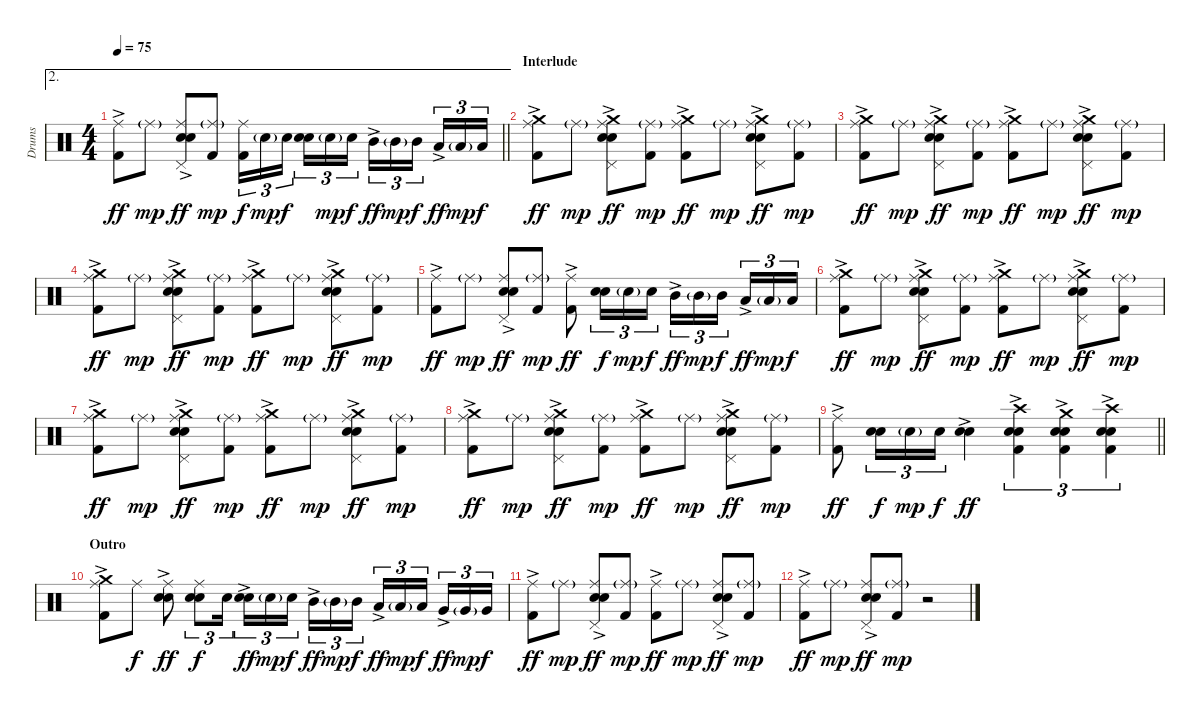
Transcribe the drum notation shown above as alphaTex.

\track ("Drums" "Drums") {instrument percussion}
\staff {score}
\articulation defaults
\ae 2
\ts (4 4)
\tempo 75
\clef neutral
\barLineRight lightlight
\ks c
("Ride (middle)" "Kick (hit) 2"{ac}).8{dy ff} "Ride (middle)"{g}.8{dy mp} ("Ride (middle)" "Electric Snare (hit)"{ac} "Snare (hit) 2" "Pedal Hi-Hat (hit)").8{dy ff} ("Ride (middle)"{g} "Kick (hit) 2").8{dy mp} ("Ride (middle)" "Kick (hit) 2").16{tu (3 2) dy f} "Snare (hit) 2"{g}.16{tu (3 2) dy mp} "Snare (hit) 2".16{tu (3 2) dy f beam splitsecondary} ("Electric Snare (hit)" "Snare (hit) 2").16{tu (3 2)} "Snare (hit) 2"{g}.16{tu (3 2) dy mp} "Snare (hit) 2".16{tu (3 2) dy f} "Mid Tom (hit)"{ac}.16{tu (3 2) dy ff} "Mid Tom (hit)"{g}.16{tu (3 2) dy mp} "Mid Tom (hit)".16{tu (3 2) dy f beam splitsecondary} "Low Tom (hit)"{ac}.16{tu (3 2) dy ff} "Low Tom (hit)"{g}.16{tu (3 2) dy mp} "Low Tom (hit)".16{tu (3 2) dy f} |
\section ("" "Interlude")
("Ride (middle)" "Crash medium (hit)" "Kick (hit) 2"{ac}).8{dy ff} "Ride (middle)"{g}.8{dy mp} ("Ride (middle)" "Crash medium (hit)" "Electric Snare (hit)"{ac} "Snare (hit) 2" "Pedal Hi-Hat (hit)").8{dy ff} ("Ride (middle)"{g} "Kick (hit) 2").8{dy mp} ("Ride (middle)" "Crash medium (hit)" "Kick (hit) 2"{ac}).8{dy ff} "Ride (middle)"{g}.8{dy mp} ("Ride (middle)" "Crash medium (hit)" "Electric Snare (hit)"{ac} "Snare (hit) 2" "Pedal Hi-Hat (hit)").8{dy ff} ("Ride (middle)"{g} "Kick (hit) 2").8{dy mp} |
("Ride (middle)" "Crash medium (hit)" "Kick (hit) 2"{ac}).8{dy ff} "Ride (middle)"{g}.8{dy mp} ("Ride (middle)" "Crash medium (hit)" "Electric Snare (hit)"{ac} "Snare (hit) 2" "Pedal Hi-Hat (hit)").8{dy ff} ("Ride (middle)"{g} "Kick (hit) 2").8{dy mp} ("Ride (middle)" "Crash medium (hit)" "Kick (hit) 2"{ac}).8{dy ff} "Ride (middle)"{g}.8{dy mp} ("Ride (middle)" "Crash medium (hit)" "Electric Snare (hit)"{ac} "Snare (hit) 2" "Pedal Hi-Hat (hit)").8{dy ff} ("Ride (middle)"{g} "Kick (hit) 2").8{dy mp} |
("Ride (middle)" "Crash medium (hit)" "Kick (hit) 2"{ac}).8{dy ff} "Ride (middle)"{g}.8{dy mp} ("Ride (middle)" "Crash medium (hit)" "Electric Snare (hit)"{ac} "Snare (hit) 2" "Pedal Hi-Hat (hit)").8{dy ff} ("Ride (middle)"{g} "Kick (hit) 2").8{dy mp} ("Ride (middle)" "Crash medium (hit)" "Kick (hit) 2"{ac}).8{dy ff} "Ride (middle)"{g}.8{dy mp} ("Ride (middle)" "Crash medium (hit)" "Electric Snare (hit)"{ac} "Snare (hit) 2" "Pedal Hi-Hat (hit)").8{dy ff} ("Ride (middle)"{g} "Kick (hit) 2").8{dy mp} |
("Ride (middle)" "Kick (hit) 2"{ac}).8{dy ff} "Ride (middle)"{g}.8{dy mp} ("Ride (middle)" "Electric Snare (hit)"{ac} "Snare (hit) 2" "Pedal Hi-Hat (hit)").8{dy ff} ("Ride (middle)"{g} "Kick (hit) 2").8{dy mp} ("Ride (middle)" "Kick (hit) 2"{ac}).8{dy ff} ("Electric Snare (hit)" "Snare (hit) 2").16{tu (3 2) dy f} "Snare (hit) 2"{g}.16{tu (3 2) dy mp} "Snare (hit) 2".16{tu (3 2) dy f} "Mid Tom (hit)"{ac}.16{tu (3 2) dy ff} "Mid Tom (hit)"{g}.16{tu (3 2) dy mp} "Mid Tom (hit)".16{tu (3 2) dy f beam splitsecondary} "Low Tom (hit)"{ac}.16{tu (3 2) dy ff} "Low Tom (hit)"{g}.16{tu (3 2) dy mp} "Low Tom (hit)".16{tu (3 2) dy f} |
("Ride (middle)" "Crash medium (hit)" "Kick (hit) 2"{ac}).8{dy ff} "Ride (middle)"{g}.8{dy mp} ("Ride (middle)" "Crash medium (hit)" "Electric Snare (hit)"{ac} "Snare (hit) 2" "Pedal Hi-Hat (hit)").8{dy ff} ("Ride (middle)"{g} "Kick (hit) 2").8{dy mp} ("Ride (middle)" "Crash medium (hit)" "Kick (hit) 2"{ac}).8{dy ff} "Ride (middle)"{g}.8{dy mp} ("Ride (middle)" "Crash medium (hit)" "Electric Snare (hit)"{ac} "Snare (hit) 2" "Pedal Hi-Hat (hit)").8{dy ff} ("Ride (middle)"{g} "Kick (hit) 2").8{dy mp} |
("Ride (middle)" "Crash medium (hit)" "Kick (hit) 2"{ac}).8{dy ff} "Ride (middle)"{g}.8{dy mp} ("Ride (middle)" "Crash medium (hit)" "Electric Snare (hit)"{ac} "Snare (hit) 2" "Pedal Hi-Hat (hit)").8{dy ff} ("Ride (middle)"{g} "Kick (hit) 2").8{dy mp} ("Ride (middle)" "Crash medium (hit)" "Kick (hit) 2"{ac}).8{dy ff} "Ride (middle)"{g}.8{dy mp} ("Ride (middle)" "Crash medium (hit)" "Electric Snare (hit)"{ac} "Snare (hit) 2" "Pedal Hi-Hat (hit)").8{dy ff} ("Ride (middle)"{g} "Kick (hit) 2").8{dy mp} |
("Ride (middle)" "Crash medium (hit)" "Kick (hit) 2"{ac}).8{dy ff} "Ride (middle)"{g}.8{dy mp} ("Ride (middle)" "Crash medium (hit)" "Electric Snare (hit)"{ac} "Snare (hit) 2" "Pedal Hi-Hat (hit)").8{dy ff} ("Ride (middle)"{g} "Kick (hit) 2").8{dy mp} ("Ride (middle)" "Crash medium (hit)" "Kick (hit) 2"{ac}).8{dy ff} "Ride (middle)"{g}.8{dy mp} ("Ride (middle)" "Crash medium (hit)" "Electric Snare (hit)"{ac} "Snare (hit) 2" "Pedal Hi-Hat (hit)").8{dy ff} ("Ride (middle)"{g} "Kick (hit) 2").8{dy mp} |
\barLineRight lightlight
("Ride (middle)" "Kick (hit) 2"{ac}).8{dy ff} ("Electric Snare (hit)" "Snare (hit) 2").16{tu (3 2) dy f} "Snare (hit) 2"{g}.16{tu (3 2) dy mp} "Snare (hit) 2".16{tu (3 2) dy f} ("Electric Snare (hit)"{ac} "Snare (hit) 2").4{dy ff} ("Crash high (hit)" "Electric Snare (hit)" "Snare (hit) 2" "Kick (hit) 2"{ac}).4{tu (3 2)} ("Crash medium (hit)" "Electric Snare (hit)" "Snare (hit) 2" "Kick (hit) 2"{ac}).4{tu (3 2)} ("Crash high (hit)" "Electric Snare (hit)" "Snare (hit) 2" "Kick (hit) 2"{ac}).4{tu (3 2)} |
\section ("" "Outro")
("Ride (middle)" "Crash medium (hit)" "Kick (hit) 2"{ac}).8 "Ride (middle)".8{dy f} ("Ride (middle)" "Electric Snare (hit)"{ac} "Snare (hit) 2").8{dy ff} ("Ride (middle)" "Electric Snare (hit)" "Snare (hit) 2").8{tu (3 2) dy f} "Snare (hit) 2".16{tu (3 2)} ("Electric Snare (hit)" "Snare (hit) 2"{ac}).16{tu (3 2) dy ff} "Snare (hit) 2"{g}.16{tu (3 2) dy mp} "Snare (hit) 2".16{tu (3 2) dy f beam splitsecondary} "Mid Tom (hit)"{ac}.16{tu (3 2) dy ff} "Mid Tom (hit)"{g}.16{tu (3 2) dy mp} "Mid Tom (hit)".16{tu (3 2) dy f} "Low Tom (hit)"{ac}.16{tu (3 2) dy ff} "Low Tom (hit)"{g}.16{tu (3 2) dy mp} "Low Tom (hit)".16{tu (3 2) dy f beam splitsecondary} "Very Low Tom (hit)"{ac}.16{tu (3 2) dy ff} "Very Low Tom (hit)"{g}.16{tu (3 2) dy mp} "Very Low Tom (hit)".16{tu (3 2) dy f} |
("Ride (middle)" "Kick (hit) 2"{ac}).8{dy ff} "Ride (middle)"{g}.8{dy mp} ("Ride (middle)" "Electric Snare (hit)"{ac} "Snare (hit) 2" "Pedal Hi-Hat (hit)").8{dy ff} ("Ride (middle)"{g} "Kick (hit) 2").8{dy mp} ("Ride (middle)" "Kick (hit) 2"{ac}).8{dy ff} "Ride (middle)"{g}.8{dy mp} ("Ride (middle)" "Electric Snare (hit)"{ac} "Snare (hit) 2" "Pedal Hi-Hat (hit)").8{dy ff} ("Ride (middle)"{g} "Kick (hit) 2").8{dy mp} |
("Ride (middle)" "Kick (hit) 2"{ac}).8{dy ff} "Ride (middle)"{g}.8{dy mp} ("Ride (middle)" "Electric Snare (hit)"{ac} "Snare (hit) 2" "Pedal Hi-Hat (hit)").8{dy ff} ("Ride (middle)"{g} "Kick (hit) 2").8{dy mp} r.2
